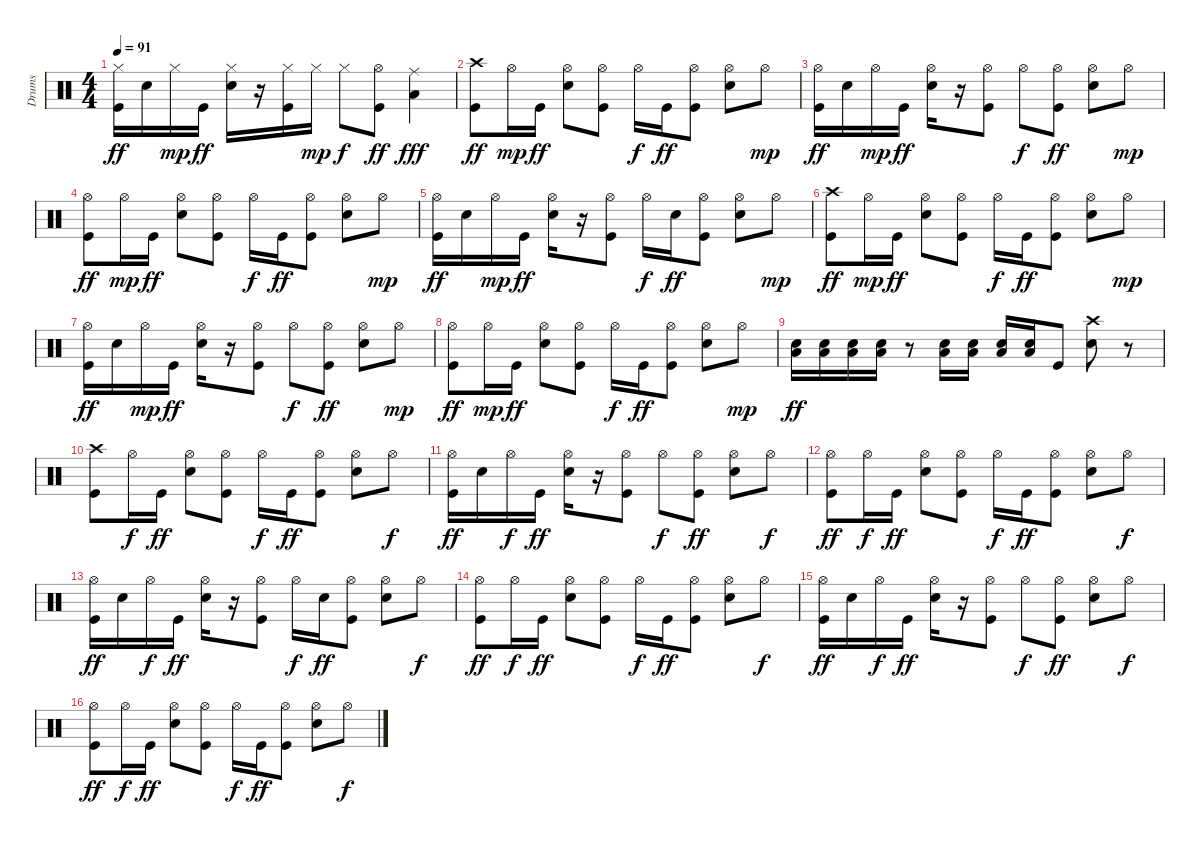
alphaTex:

\track ("Drums" "Drums") {instrument percussion}
\staff {score}
\articulation defaults
\ts (4 4)
\tempo 91
\clef neutral
\ks c
("Hi-Hat (closed)" "Kick (hit)").16{dy ff} "Electric Snare (hit)".16 "Hi-Hat (closed)".16{dy mp} "Kick (hit)".16{dy ff} ("Hi-Hat (closed)" "Electric Snare (hit)").16 r.16 ("Hi-Hat (closed)" "Kick (hit)").16 "Hi-Hat (closed)".16{dy mp} "Hi-Hat (closed)".8{dy f} ("Hi-Hat (open)" "Kick (hit)").8{dy ff} ("Ride (middle)" "Low Tom (hit)").4{dy fff} |
("Crash high (hit)" "Kick (hit)").8{dy ff} "Hi-Hat (open)".16{dy mp} "Kick (hit)".16{dy ff} ("Hi-Hat (open)" "Electric Snare (hit)").8 ("Hi-Hat (open)" "Kick (hit)").8 "Hi-Hat (open)".16{dy f} "Kick (hit)".16{dy ff} ("Hi-Hat (open)" "Kick (hit)").8 ("Hi-Hat (open)" "Electric Snare (hit)").8 "Hi-Hat (open)".8{dy mp} |
("Hi-Hat (open)" "Kick (hit)").16{dy ff} "Electric Snare (hit)".16 "Hi-Hat (open)".16{dy mp} "Kick (hit)".16{dy ff} ("Hi-Hat (open)" "Electric Snare (hit)").16 r.16 ("Hi-Hat (open)" "Kick (hit)").8 "Hi-Hat (open)".8{dy f} ("Hi-Hat (open)" "Kick (hit)").8{dy ff} ("Hi-Hat (open)" "Electric Snare (hit)").8 "Hi-Hat (open)".8{dy mp} |
("Hi-Hat (open)" "Kick (hit)").8{dy ff} "Hi-Hat (open)".16{dy mp} "Kick (hit)".16{dy ff} ("Hi-Hat (open)" "Electric Snare (hit)").8 ("Hi-Hat (open)" "Kick (hit)").8 "Hi-Hat (open)".16{dy f} "Kick (hit)".16{dy ff} ("Hi-Hat (open)" "Kick (hit)").8 ("Hi-Hat (open)" "Electric Snare (hit)").8 "Hi-Hat (open)".8{dy mp} |
("Hi-Hat (open)" "Kick (hit)").16{dy ff} "Electric Snare (hit)".16 "Hi-Hat (open)".16{dy mp} "Kick (hit)".16{dy ff} ("Hi-Hat (open)" "Electric Snare (hit)").16 r.16 ("Hi-Hat (open)" "Kick (hit)").8 "Hi-Hat (open)".16{dy f} "Electric Snare (hit)".16{dy ff} ("Hi-Hat (open)" "Kick (hit)").8 ("Hi-Hat (open)" "Electric Snare (hit)").8 "Hi-Hat (open)".8{dy mp} |
("Crash high (hit)" "Kick (hit)").8{dy ff} "Hi-Hat (open)".16{dy mp} "Kick (hit)".16{dy ff} ("Hi-Hat (open)" "Electric Snare (hit)").8 ("Hi-Hat (open)" "Kick (hit)").8 "Hi-Hat (open)".16{dy f} "Kick (hit)".16{dy ff} ("Hi-Hat (open)" "Kick (hit)").8 ("Hi-Hat (open)" "Electric Snare (hit)").8 "Hi-Hat (open)".8{dy mp} |
("Hi-Hat (open)" "Kick (hit)").16{dy ff} "Electric Snare (hit)".16 "Hi-Hat (open)".16{dy mp} "Kick (hit)".16{dy ff} ("Hi-Hat (open)" "Electric Snare (hit)").16 r.16 ("Hi-Hat (open)" "Kick (hit)").8 "Hi-Hat (open)".8{dy f} ("Hi-Hat (open)" "Kick (hit)").8{dy ff} ("Hi-Hat (open)" "Electric Snare (hit)").8 "Hi-Hat (open)".8{dy mp} |
("Hi-Hat (open)" "Kick (hit)").8{dy ff} "Hi-Hat (open)".16{dy mp} "Kick (hit)".16{dy ff} ("Hi-Hat (open)" "Electric Snare (hit)").8 ("Hi-Hat (open)" "Kick (hit)").8 "Hi-Hat (open)".16{dy f} "Kick (hit)".16{dy ff} ("Hi-Hat (open)" "Kick (hit)").8 ("Hi-Hat (open)" "Electric Snare (hit)").8 "Hi-Hat (open)".8{dy mp} |
("Electric Snare (hit)" "Low Floor Tom (hit)").16{dy ff} ("Electric Snare (hit)" "Low Floor Tom (hit)").16 ("Electric Snare (hit)" "Low Floor Tom (hit)").16 ("Electric Snare (hit)" "Low Floor Tom (hit)").16 r.8 ("Electric Snare (hit)" "Low Floor Tom (hit)").16 ("Electric Snare (hit)" "Low Floor Tom (hit)").16 ("Electric Snare (hit)" "Low Floor Tom (hit)").16 ("Electric Snare (hit)" "Low Floor Tom (hit)").16 "Kick (hit)".8 ("Crash high (hit)" "Electric Snare (hit)").8 r.8 |
("Crash high (hit)" "Kick (hit)").8 "Hi-Hat (open)".16{dy f} "Kick (hit)".16{dy ff} ("Hi-Hat (open)" "Electric Snare (hit)").8 ("Hi-Hat (open)" "Kick (hit)").8 "Hi-Hat (open)".16{dy f} "Kick (hit)".16{dy ff} ("Hi-Hat (open)" "Kick (hit)").8 ("Hi-Hat (open)" "Electric Snare (hit)").8 "Hi-Hat (open)".8{dy f} |
("Hi-Hat (open)" "Kick (hit)").16{dy ff} "Electric Snare (hit)".16 "Hi-Hat (open)".16{dy f} "Kick (hit)".16{dy ff} ("Hi-Hat (open)" "Electric Snare (hit)").16 r.16 ("Hi-Hat (open)" "Kick (hit)").8 "Hi-Hat (open)".8{dy f} ("Hi-Hat (open)" "Kick (hit)").8{dy ff} ("Hi-Hat (open)" "Electric Snare (hit)").8 "Hi-Hat (open)".8{dy f} |
("Hi-Hat (open)" "Kick (hit)").8{dy ff} "Hi-Hat (open)".16{dy f} "Kick (hit)".16{dy ff} ("Hi-Hat (open)" "Electric Snare (hit)").8 ("Hi-Hat (open)" "Kick (hit)").8 "Hi-Hat (open)".16{dy f} "Kick (hit)".16{dy ff} ("Hi-Hat (open)" "Kick (hit)").8 ("Hi-Hat (open)" "Electric Snare (hit)").8 "Hi-Hat (open)".8{dy f} |
("Hi-Hat (open)" "Kick (hit)").16{dy ff} "Electric Snare (hit)".16 "Hi-Hat (open)".16{dy f} "Kick (hit)".16{dy ff} ("Hi-Hat (open)" "Electric Snare (hit)").16 r.16 ("Hi-Hat (open)" "Kick (hit)").8 "Hi-Hat (open)".16{dy f} "Electric Snare (hit)".16{dy ff} ("Hi-Hat (open)" "Kick (hit)").8 ("Hi-Hat (open)" "Electric Snare (hit)").8 "Hi-Hat (open)".8{dy f} |
("Hi-Hat (open)" "Kick (hit)").8{dy ff} "Hi-Hat (open)".16{dy f} "Kick (hit)".16{dy ff} ("Hi-Hat (open)" "Electric Snare (hit)").8 ("Hi-Hat (open)" "Kick (hit)").8 "Hi-Hat (open)".16{dy f} "Kick (hit)".16{dy ff} ("Hi-Hat (open)" "Kick (hit)").8 ("Hi-Hat (open)" "Electric Snare (hit)").8 "Hi-Hat (open)".8{dy f} |
("Hi-Hat (open)" "Kick (hit)").16{dy ff} "Electric Snare (hit)".16 "Hi-Hat (open)".16{dy f} "Kick (hit)".16{dy ff} ("Hi-Hat (open)" "Electric Snare (hit)").16 r.16 ("Hi-Hat (open)" "Kick (hit)").8 "Hi-Hat (open)".8{dy f} ("Hi-Hat (open)" "Kick (hit)").8{dy ff} ("Hi-Hat (open)" "Electric Snare (hit)").8 "Hi-Hat (open)".8{dy f} |
("Hi-Hat (open)" "Kick (hit)").8{dy ff} "Hi-Hat (open)".16{dy f} "Kick (hit)".16{dy ff} ("Hi-Hat (open)" "Electric Snare (hit)").8 ("Hi-Hat (open)" "Kick (hit)").8 "Hi-Hat (open)".16{dy f} "Kick (hit)".16{dy ff} ("Hi-Hat (open)" "Kick (hit)").8 ("Hi-Hat (open)" "Electric Snare (hit)").8 "Hi-Hat (open)".8{dy f}
